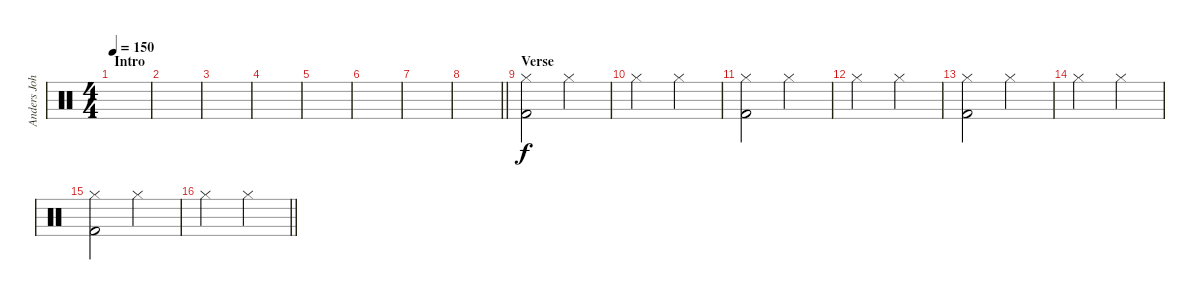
\track ("Anders Johansson" "Anders Joh") {instrument percussion}
\staff {score}
\articulation defaults
\ts (4 4)
\section ("" "Intro")
\tempo 150
\clef neutral
\ks c
|
|
|
|
|
|
|
\barLineRight lightlight
|
\section ("" "Verse")
("Hi-Hat (closed)" "Kick (hit) 2").2 "Hi-Hat (closed)".2 |
"Hi-Hat (closed)".2 "Hi-Hat (closed)".2 |
("Hi-Hat (closed)" "Kick (hit) 2").2 "Hi-Hat (closed)".2 |
"Hi-Hat (closed)".2 "Hi-Hat (closed)".2 |
("Hi-Hat (closed)" "Kick (hit) 2").2 "Hi-Hat (closed)".2 |
"Hi-Hat (closed)".2 "Hi-Hat (closed)".2 |
("Hi-Hat (closed)" "Kick (hit) 2").2 "Hi-Hat (closed)".2 |
\barLineRight lightlight "Hi-Hat (closed)".2 "Hi-Hat (closed)".2
